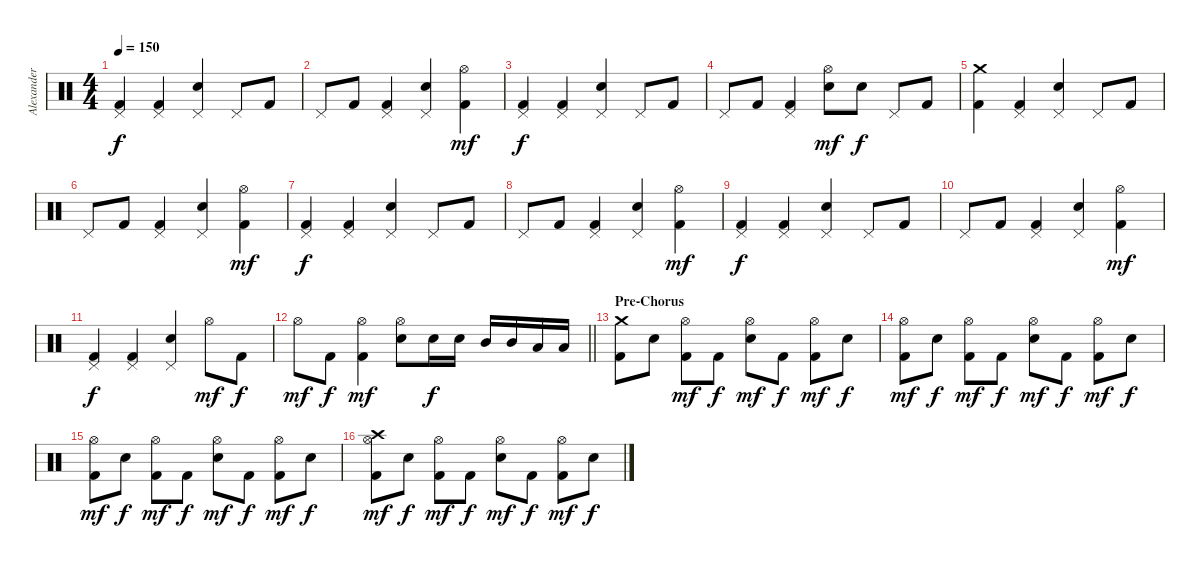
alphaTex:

\track ("Alexander Sveningsson" "Alexander ") {instrument percussion}
\staff {score}
\articulation defaults
\ts (4 4)
\tempo 150
\clef neutral
\ks c
("Pedal Hi-Hat (hit)" "Kick (hit) 2").4{dy f} ("Pedal Hi-Hat (hit)" "Kick (hit) 2").4 ("Pedal Hi-Hat (hit)" "Electric Snare (hit)").4 "Pedal Hi-Hat (hit)".8 "Kick (hit) 2".8 |
"Pedal Hi-Hat (hit)".8 "Kick (hit) 2".8 ("Pedal Hi-Hat (hit)" "Kick (hit) 2").4 ("Pedal Hi-Hat (hit)" "Electric Snare (hit)").4 ("Hi-Hat (open)" "Kick (hit) 2").4{dy mf} |
("Pedal Hi-Hat (hit)" "Kick (hit) 2").4{dy f} ("Pedal Hi-Hat (hit)" "Kick (hit) 2").4 ("Pedal Hi-Hat (hit)" "Electric Snare (hit)").4 "Pedal Hi-Hat (hit)".8 "Kick (hit) 2".8 |
"Pedal Hi-Hat (hit)".8 "Kick (hit) 2".8 ("Pedal Hi-Hat (hit)" "Kick (hit) 2").4 ("Hi-Hat (open)" "Electric Snare (hit)").8{dy mf} "Electric Snare (hit)".8{dy f} "Pedal Hi-Hat (hit)".8 "Kick (hit) 2".8 |
("Crash medium (hit)" "Kick (hit) 2").4 ("Pedal Hi-Hat (hit)" "Kick (hit) 2").4 ("Pedal Hi-Hat (hit)" "Electric Snare (hit)").4 "Pedal Hi-Hat (hit)".8 "Kick (hit) 2".8 |
"Pedal Hi-Hat (hit)".8 "Kick (hit) 2".8 ("Pedal Hi-Hat (hit)" "Kick (hit) 2").4 ("Pedal Hi-Hat (hit)" "Electric Snare (hit)").4 ("Hi-Hat (open)" "Kick (hit) 2").4{dy mf} |
("Pedal Hi-Hat (hit)" "Kick (hit) 2").4{dy f} ("Pedal Hi-Hat (hit)" "Kick (hit) 2").4 ("Pedal Hi-Hat (hit)" "Electric Snare (hit)").4 "Pedal Hi-Hat (hit)".8 "Kick (hit) 2".8 |
"Pedal Hi-Hat (hit)".8 "Kick (hit) 2".8 ("Pedal Hi-Hat (hit)" "Kick (hit) 2").4 ("Pedal Hi-Hat (hit)" "Electric Snare (hit)").4 ("Hi-Hat (open)" "Kick (hit) 2").4{dy mf} |
("Pedal Hi-Hat (hit)" "Kick (hit) 2").4{dy f} ("Pedal Hi-Hat (hit)" "Kick (hit) 2").4 ("Pedal Hi-Hat (hit)" "Electric Snare (hit)").4 "Pedal Hi-Hat (hit)".8 "Kick (hit) 2".8 |
"Pedal Hi-Hat (hit)".8 "Kick (hit) 2".8 ("Pedal Hi-Hat (hit)" "Kick (hit) 2").4 ("Pedal Hi-Hat (hit)" "Electric Snare (hit)").4 ("Hi-Hat (open)" "Kick (hit) 2").4{dy mf} |
("Pedal Hi-Hat (hit)" "Kick (hit) 2").4{dy f} ("Pedal Hi-Hat (hit)" "Kick (hit) 2").4 ("Pedal Hi-Hat (hit)" "Electric Snare (hit)").4 "Hi-Hat (open)".8{dy mf} "Kick (hit) 2".8{dy f} |
\barLineRight lightlight "Hi-Hat (open)".8{dy mf} "Kick (hit) 2".8{dy f}
("Hi-Hat (open)" "Kick (hit) 2").4{dy mf} ("Hi-Hat (open)" "Electric Snare (hit)").8 "Electric Snare (hit)".16{dy f} "Electric Snare (hit)".16 "Mid Tom (hit)".16 "Mid Tom (hit)".16 "Low Tom (hit)".16 "Low Tom (hit)".16 |
\section ("" "Pre-Chorus")
("Crash medium (hit)" "Kick (hit) 2").8 "Electric Snare (hit)".8 ("Hi-Hat (open)" "Kick (hit) 2").8{dy mf} "Kick (hit) 2".8{dy f} ("Hi-Hat (open)" "Electric Snare (hit)").8{dy mf} "Kick (hit) 2".8{dy f} ("Hi-Hat (open)" "Kick (hit) 2").8{dy mf} "Electric Snare (hit)".8{dy f} |
("Hi-Hat (open)" "Kick (hit) 2").8{dy mf} "Electric Snare (hit)".8{dy f} ("Hi-Hat (open)" "Kick (hit) 2").8{dy mf} "Kick (hit) 2".8{dy f} ("Hi-Hat (open)" "Electric Snare (hit)").8{dy mf} "Kick (hit) 2".8{dy f} ("Hi-Hat (open)" "Kick (hit) 2").8{dy mf} "Electric Snare (hit)".8{dy f} |
("Hi-Hat (open)" "Kick (hit) 2").8{dy mf} "Electric Snare (hit)".8{dy f} ("Hi-Hat (open)" "Kick (hit) 2").8{dy mf} "Kick (hit) 2".8{dy f} ("Hi-Hat (open)" "Electric Snare (hit)").8{dy mf} "Kick (hit) 2".8{dy f} ("Hi-Hat (open)" "Kick (hit) 2").8{dy mf} "Electric Snare (hit)".8{dy f} |
("Crash high (hit)" "Hi-Hat (open)" "Kick (hit) 2").8{dy mf} "Electric Snare (hit)".8{dy f} ("Hi-Hat (open)" "Kick (hit) 2").8{dy mf} "Kick (hit) 2".8{dy f} ("Hi-Hat (open)" "Electric Snare (hit)").8{dy mf} "Kick (hit) 2".8{dy f} ("Hi-Hat (open)" "Kick (hit) 2").8{dy mf} "Electric Snare (hit)".8{dy f}
